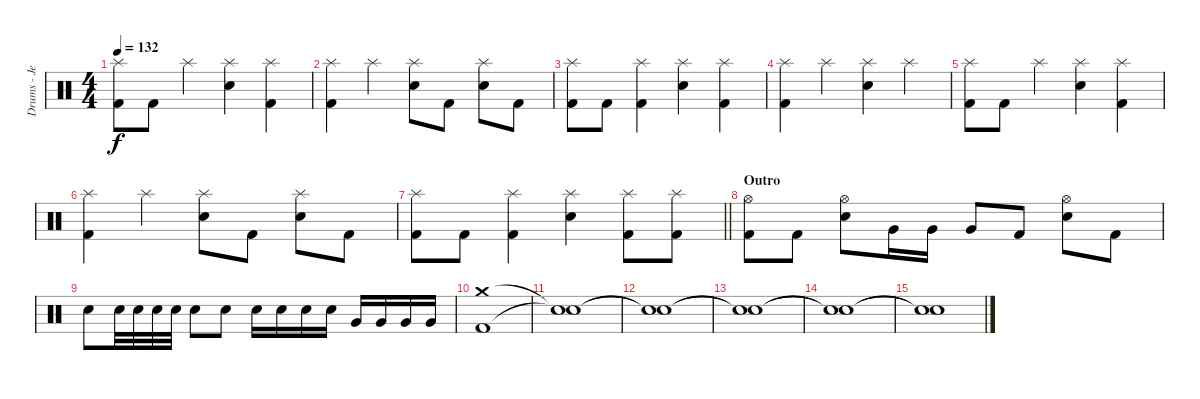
\track ("Drums - Jess Margera" "Drums - Je") {instrument percussion}
\staff {score}
\articulation defaults
\ts (4 4)
\tempo 132
\clef neutral
\ks c
("Splash (hit)" "Kick (hit) 2").8{dy f} "Kick (hit) 2".8 "Splash (hit)".4 ("Splash (hit)" "Electric Snare (hit)").4 ("Splash (hit)" "Kick (hit) 2").4 |
("Splash (hit)" "Kick (hit) 2").4 "Splash (hit)".4 ("Splash (hit)" "Electric Snare (hit)").8 "Kick (hit) 2".8 ("Splash (hit)" "Electric Snare (hit)").8 "Kick (hit) 2".8 |
("Splash (hit)" "Kick (hit) 2").8 "Kick (hit) 2".8 ("Splash (hit)" "Kick (hit) 2").4 ("Splash (hit)" "Electric Snare (hit)").4 ("Splash (hit)" "Kick (hit) 2").4 |
("Splash (hit)" "Kick (hit) 2").4 "Splash (hit)".4 ("Splash (hit)" "Electric Snare (hit)").4 "Splash (hit)".4 |
("Splash (hit)" "Kick (hit) 2").8 "Kick (hit) 2".8 "Splash (hit)".4 ("Splash (hit)" "Electric Snare (hit)").4 ("Splash (hit)" "Kick (hit) 2").4 |
("Splash (hit)" "Kick (hit) 2").4 "Splash (hit)".4 ("Splash (hit)" "Electric Snare (hit)").8 "Kick (hit) 2".8 ("Splash (hit)" "Electric Snare (hit)").8 "Kick (hit) 2".8 |
\barLineRight lightlight
("Splash (hit)" "Kick (hit) 2").8 "Kick (hit) 2".8 ("Splash (hit)" "Kick (hit) 2").4 ("Splash (hit)" "Electric Snare (hit)").4 ("Splash (hit)" "Kick (hit) 2").8 ("Splash (hit)" "Kick (hit) 2").8 |
\section ("" "Outro")
("Hi-Hat (open)" "Kick (hit) 2").8 "Kick (hit) 2".8 ("Hi-Hat (open)" "Electric Snare (hit)").8 "Very Low Tom (hit)".16 "Very Low Tom (hit)".16 "Very Low Tom (hit)".8 "Kick (hit) 2".8 ("Hi-Hat (open)" "Electric Snare (hit)").8 "Kick (hit) 2".8 |
"Electric Snare (hit)".8 "Electric Snare (hit)".32 "Electric Snare (hit)".32 "Electric Snare (hit)".32 "Electric Snare (hit)".32 "Electric Snare (hit)".8 "Electric Snare (hit)".8 "Electric Snare (hit)".16 "Electric Snare (hit)".16 "Electric Snare (hit)".16 "Electric Snare (hit)".16 "Very Low Tom (hit)".16 "Very Low Tom (hit)".16 "Very Low Tom (hit)".16 "Very Low Tom (hit)".16 |
("Crash medium (hit)" "Kick (hit) 2").1 |
("Snare (hit)"{t} "Snare (hit)"{t}).1 |
("Snare (hit)"{t} "Snare (hit)"{t}).1 |
("Snare (hit)"{t} "Snare (hit)"{t}).1 |
("Snare (hit)"{t} "Snare (hit)"{t}).1 |
("Snare (hit)"{t} "Snare (hit)"{t}).1
